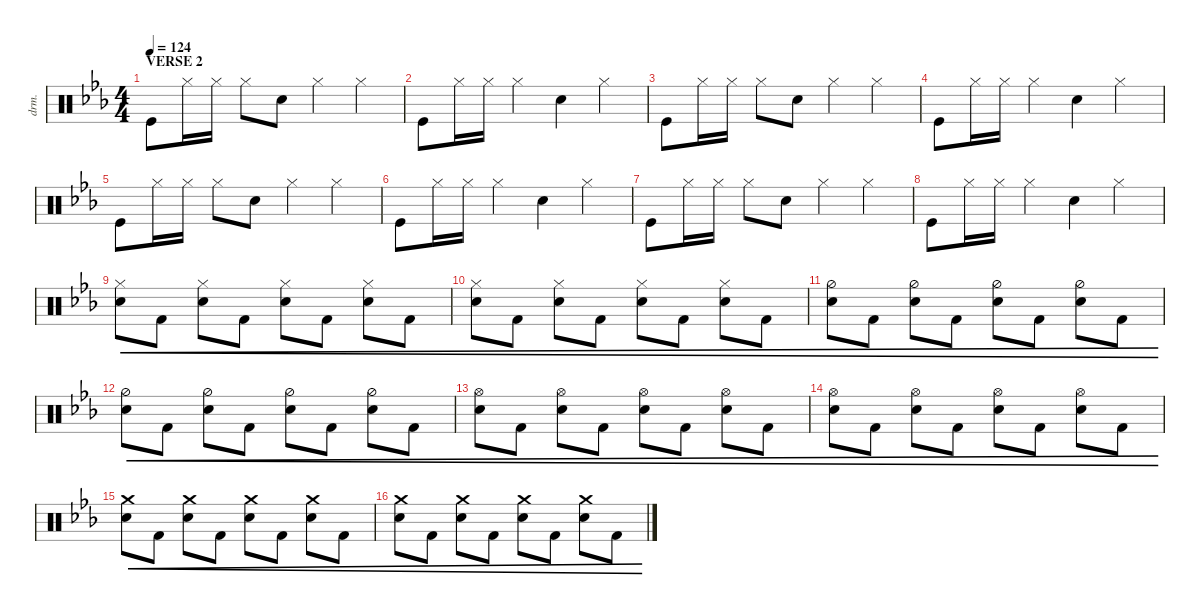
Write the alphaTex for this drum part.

\defaultSystemsLayout 4
\hideDynamics
\bracketExtendMode nobrackets
\otherSystemsTrackNameOrientation horizontal
\track ("Drumkit" "drm.") {instrument percussion}
\staff {score}
\articulation defaults
\ts (4 4)
\section ("" "VERSE 2")
\tempo 124
\clef neutral
\ks cminor "Kick (hit)"{acc forcenatural}.8{dy mf beam Down} "Hi-Hat (closed)"{acc forcenatural}.16{beam Down} "Hi-Hat (closed)"{acc forcenatural}.16{beam Down} "Hi-Hat (closed)"{acc forcenatural}.8{beam Down} "Snare (hit) 2"{acc forcenatural}.8{beam Down} "Hi-Hat (closed)"{acc forcenatural}.4{beam Down} "Hi-Hat (closed)"{acc forcenatural}.4{beam Down}
|
"Kick (hit)"{acc forcenatural}.8{beam Down} "Hi-Hat (closed)"{acc forcenatural}.16{beam Down} "Hi-Hat (closed)"{acc forcenatural}.16{beam Down} "Hi-Hat (closed)"{acc forcenatural}.4{beam Down} "Snare (hit) 2"{acc forcenatural}.4{beam Down} "Hi-Hat (closed)"{acc forcenatural}.4{beam Down} |
"Kick (hit)"{acc forcenatural}.8{beam Down} "Hi-Hat (closed)"{acc forcenatural}.16{beam Down} "Hi-Hat (closed)"{acc forcenatural}.16{beam Down} "Hi-Hat (closed)"{acc forcenatural}.8{beam Down} "Snare (hit) 2"{acc forcenatural}.8{beam Down} "Hi-Hat (closed)"{acc forcenatural}.4{beam Down} "Hi-Hat (closed)"{acc forcenatural}.4{beam Down} |
"Kick (hit)"{acc forcenatural}.8{beam Down} "Hi-Hat (closed)"{acc forcenatural}.16{beam Down} "Hi-Hat (closed)"{acc forcenatural}.16{beam Down} "Hi-Hat (closed)"{acc forcenatural}.4{beam Down} "Snare (hit) 2"{acc forcenatural}.4{beam Down} "Hi-Hat (closed)"{acc forcenatural}.4{beam Down} |
"Kick (hit)"{acc forcenatural}.8{beam Down} "Hi-Hat (closed)"{acc forcenatural}.16{beam Down} "Hi-Hat (closed)"{acc forcenatural}.16{beam Down} "Hi-Hat (closed)"{acc forcenatural}.8{beam Down} "Snare (hit) 2"{acc forcenatural}.8{beam Down} "Hi-Hat (closed)"{acc forcenatural}.4{beam Down} "Hi-Hat (closed)"{acc forcenatural}.4{beam Down} |
"Kick (hit)"{acc forcenatural}.8{beam Down} "Hi-Hat (closed)"{acc forcenatural}.16{beam Down} "Hi-Hat (closed)"{acc forcenatural}.16{beam Down} "Hi-Hat (closed)"{acc forcenatural}.4{beam Down} "Snare (hit) 2"{acc forcenatural}.4{beam Down} "Hi-Hat (closed)"{acc forcenatural}.4{beam Down} |
"Kick (hit)"{acc forcenatural}.8{beam Down} "Hi-Hat (closed)"{acc forcenatural}.16{beam Down} "Hi-Hat (closed)"{acc forcenatural}.16{beam Down} "Hi-Hat (closed)"{acc forcenatural}.8{beam Down} "Snare (hit) 2"{acc forcenatural}.8{beam Down} "Hi-Hat (closed)"{acc forcenatural}.4{beam Down} "Hi-Hat (closed)"{acc forcenatural}.4{beam Down} |
"Kick (hit)"{acc forcenatural}.8{beam Down} "Hi-Hat (closed)"{acc forcenatural}.16{beam Down} "Hi-Hat (closed)"{acc forcenatural}.16{beam Down} "Hi-Hat (closed)"{acc forcenatural}.4{beam Down} "Snare (hit) 2"{acc forcenatural}.4{beam Down} "Hi-Hat (closed)"{acc forcenatural}.4{beam Down} |
("Hi-Hat (closed)"{acc forcenatural} "Snare (hit) 2"{acc forcenatural}).8{cre beam Down} "Kick (hit) 2"{acc forcenatural}.8{cre beam Down} ("Hi-Hat (closed)"{acc forcenatural} "Snare (hit) 2"{acc forcenatural}).8{cre beam Down} "Kick (hit) 2"{acc forcenatural}.8{cre beam Down} ("Hi-Hat (closed)"{acc forcenatural} "Snare (hit) 2"{acc forcenatural}).8{cre beam Down} "Kick (hit) 2"{acc forcenatural}.8{cre beam Down} ("Hi-Hat (closed)"{acc forcenatural} "Snare (hit) 2"{acc forcenatural}).8{cre beam Down} "Kick (hit) 2"{acc forcenatural}.8{cre beam Down} |
("Hi-Hat (closed)"{acc forcenatural} "Snare (hit) 2"{acc forcenatural}).8{cre beam Down} "Kick (hit) 2"{acc forcenatural}.8{cre beam Down} ("Hi-Hat (closed)"{acc forcenatural} "Snare (hit) 2"{acc forcenatural}).8{cre beam Down} "Kick (hit) 2"{acc forcenatural}.8{cre beam Down} ("Hi-Hat (closed)"{acc forcenatural} "Snare (hit) 2"{acc forcenatural}).8{cre beam Down} "Kick (hit) 2"{acc forcenatural}.8{cre beam Down} ("Hi-Hat (closed)"{acc forcenatural} "Snare (hit) 2"{acc forcenatural}).8{cre beam Down} "Kick (hit) 2"{acc forcenatural}.8{cre beam Down} |
("Hi-Hat (half)"{acc forcenatural} "Snare (hit) 2"{acc forcenatural}).8{cre beam Down} "Kick (hit) 2"{acc forcenatural}.8{cre beam Down} ("Hi-Hat (half)"{acc forcenatural} "Snare (hit) 2"{acc forcenatural}).8{cre beam Down} "Kick (hit) 2"{acc forcenatural}.8{cre beam Down} ("Hi-Hat (half)"{acc forcenatural} "Snare (hit) 2"{acc forcenatural}).8{cre beam Down} "Kick (hit) 2"{acc forcenatural}.8{cre beam Down} ("Hi-Hat (half)"{acc forcenatural} "Snare (hit) 2"{acc forcenatural}).8{cre beam Down} "Kick (hit) 2"{acc forcenatural}.8{cre beam Down} |
("Hi-Hat (half)"{acc forcenatural} "Snare (hit) 2"{acc forcenatural}).8{cre beam Down} "Kick (hit) 2"{acc forcenatural}.8{cre beam Down} ("Hi-Hat (half)"{acc forcenatural} "Snare (hit) 2"{acc forcenatural}).8{cre beam Down} "Kick (hit) 2"{acc forcenatural}.8{cre beam Down} ("Hi-Hat (half)"{acc forcenatural} "Snare (hit) 2"{acc forcenatural}).8{cre beam Down} "Kick (hit) 2"{acc forcenatural}.8{cre beam Down} ("Hi-Hat (half)"{acc forcenatural} "Snare (hit) 2"{acc forcenatural}).8{cre beam Down} "Kick (hit) 2"{acc forcenatural}.8{cre beam Down} |
("Hi-Hat (open)"{acc forcenatural} "Snare (hit) 2"{acc forcenatural}).8{cre beam Down} "Kick (hit) 2"{acc forcenatural}.8{cre beam Down} ("Hi-Hat (open)"{acc forcenatural} "Snare (hit) 2"{acc forcenatural}).8{cre beam Down} "Kick (hit) 2"{acc forcenatural}.8{cre beam Down} ("Hi-Hat (open)"{acc forcenatural} "Snare (hit) 2"{acc forcenatural}).8{cre beam Down} "Kick (hit) 2"{acc forcenatural}.8{cre beam Down} ("Hi-Hat (open)"{acc forcenatural} "Snare (hit) 2"{acc forcenatural}).8{cre beam Down} "Kick (hit) 2"{acc forcenatural}.8{cre beam Down} |
("Hi-Hat (open)"{acc forcenatural} "Snare (hit) 2"{acc forcenatural}).8{cre beam Down} "Kick (hit) 2"{acc forcenatural}.8{cre beam Down} ("Hi-Hat (open)"{acc forcenatural} "Snare (hit) 2"{acc forcenatural}).8{cre beam Down} "Kick (hit) 2"{acc forcenatural}.8{cre beam Down} ("Hi-Hat (open)"{acc forcenatural} "Snare (hit) 2"{acc forcenatural}).8{cre beam Down} "Kick (hit) 2"{acc forcenatural}.8{cre beam Down} ("Hi-Hat (open)"{acc forcenatural} "Snare (hit) 2"{acc forcenatural}).8{cre beam Down} "Kick (hit) 2"{acc forcenatural}.8{cre beam Down} |
("Snare (hit) 2"{acc forcenatural} "Crash medium (hit)"{acc forcenatural}).8{cre beam Down} "Kick (hit) 2"{acc forcenatural}.8{cre beam Down} ("Snare (hit) 2"{acc forcenatural} "Crash medium (hit)"{acc forcenatural}).8{cre beam Down} "Kick (hit) 2"{acc forcenatural}.8{cre beam Down} ("Snare (hit) 2"{acc forcenatural} "Crash medium (hit)"{acc forcenatural}).8{cre beam Down} "Kick (hit) 2"{acc forcenatural}.8{cre beam Down} ("Snare (hit) 2"{acc forcenatural} "Crash medium (hit)"{acc forcenatural}).8{cre beam Down} "Kick (hit) 2"{acc forcenatural}.8{cre beam Down} |
("Snare (hit) 2"{acc forcenatural} "Crash medium (hit)"{acc forcenatural}).8{cre beam Down} "Kick (hit) 2"{acc forcenatural}.8{cre beam Down} ("Snare (hit) 2"{acc forcenatural} "Crash medium (hit)"{acc forcenatural}).8{cre beam Down} "Kick (hit) 2"{acc forcenatural}.8{cre beam Down} ("Snare (hit) 2"{acc forcenatural} "Crash medium (hit)"{acc forcenatural}).8{cre beam Down} "Kick (hit) 2"{acc forcenatural}.8{cre beam Down} ("Snare (hit) 2"{acc forcenatural} "Crash medium (hit)"{acc forcenatural}).8{cre beam Down} "Kick (hit) 2"{acc forcenatural}.8{cre beam Down}
